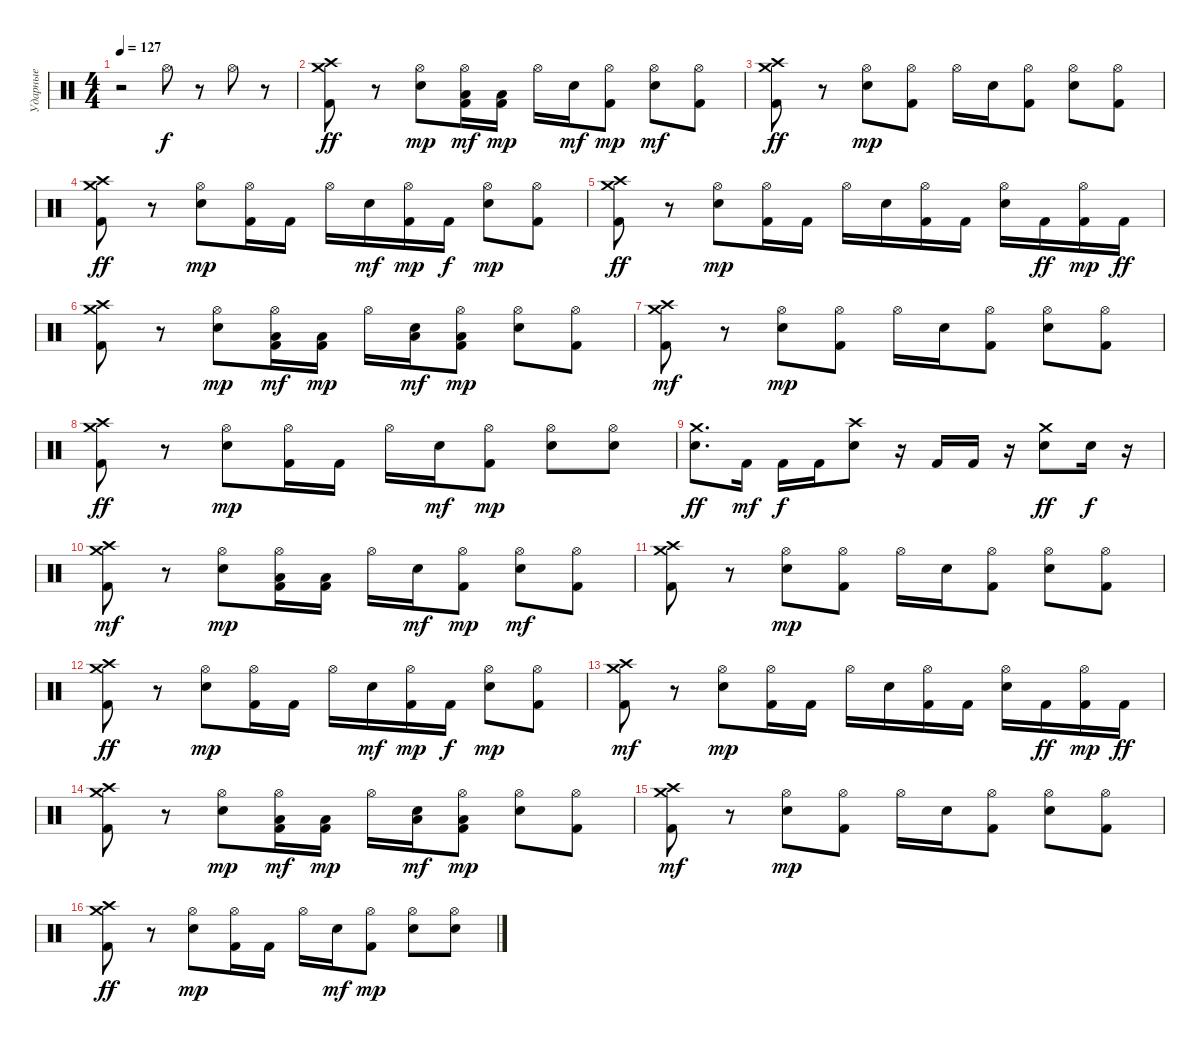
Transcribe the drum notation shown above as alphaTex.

\track ("Ударные" "Ударные") {instrument percussion}
\staff {score}
\articulation defaults
\ts (4 4)
\tempo 127
\clef neutral
\ks c
r.2{dy f} "Hi-Hat (open)".8 r.8 "Hi-Hat (open)".8 r.8 |
("Crash high (hit)" "Crash medium (hit)" "Kick (hit) 2").8{dy ff} r.8 ("Hi-Hat (open)" "Snare (hit) 2").8{dy mp} ("Hi-Hat (open)" "Kick (hit) 2" "Low Tom (hit)").16{dy mf} ("Kick (hit) 2" "Low Floor Tom (hit)").16{dy mp} "Hi-Hat (open)".16 "Electric Snare (hit)".16{dy mf} ("Hi-Hat (open)" "Kick (hit) 2").8{dy mp} ("Hi-Hat (open)" "Snare (hit) 2").8{dy mf} ("Hi-Hat (open)" "Kick (hit) 2").8 |
("Crash high (hit)" "Crash medium (hit)" "Kick (hit) 2").8{dy ff} r.8 ("Hi-Hat (open)" "Snare (hit) 2").8{dy mp} ("Hi-Hat (open)" "Kick (hit) 2").8 "Hi-Hat (open)".16 "Electric Snare (hit)".16 ("Kick (hit) 2" "Hi-Hat (open)").8 ("Snare (hit) 2" "Hi-Hat (open)").8 ("Hi-Hat (open)" "Kick (hit) 2").8 |
("Crash high (hit)" "Crash medium (hit)" "Kick (hit) 2").8{dy ff} r.8 ("Snare (hit) 2" "Hi-Hat (open)").8{dy mp} ("Kick (hit) 2" "Hi-Hat (open)").16 "Kick (hit) 2".16 "Hi-Hat (open)".16 "Electric Snare (hit)".16{dy mf} ("Kick (hit) 2" "Hi-Hat (open)").16{dy mp} "Kick (hit) 2".16{dy f} ("Snare (hit) 2" "Hi-Hat (open)").8{dy mp} ("Kick (hit) 2" "Hi-Hat (open)").8 |
("Crash high (hit)" "Crash medium (hit)" "Kick (hit) 2").8{dy ff} r.8 ("Electric Snare (hit)" "Hi-Hat (open)").8{dy mp} ("Hi-Hat (open)" "Kick (hit) 2").16 "Kick (hit) 2".16 "Hi-Hat (open)".16 "Electric Snare (hit)".16 ("Hi-Hat (open)" "Kick (hit) 2").16 "Kick (hit) 2".16 ("Electric Snare (hit)" "Hi-Hat (open)").16 "Kick (hit) 2".16{dy ff} ("Hi-Hat (open)" "Kick (hit) 2").16{dy mp} "Kick (hit) 2".16{dy ff} |
("Crash high (hit)" "Crash medium (hit)" "Kick (hit) 2").8 r.8 ("Hi-Hat (open)" "Snare (hit) 2").8{dy mp} ("Hi-Hat (open)" "Kick (hit) 2" "Low Tom (hit)").16{dy mf} ("Low Floor Tom (hit)" "Kick (hit) 2").16{dy mp} "Hi-Hat (open)".16 ("Low Floor Tom (hit)" "Electric Snare (hit)").16{dy mf} ("Low Tom (hit)" "Kick (hit) 2" "Hi-Hat (open)").8{dy mp} ("Hi-Hat (open)" "Snare (hit) 2").8 ("Hi-Hat (open)" "Kick (hit) 2").8 |
("Kick (hit) 2" "Crash medium (hit)" "Crash high (hit)").8{dy mf} r.8 ("Snare (hit) 2" "Hi-Hat (open)").8{dy mp} ("Kick (hit) 2" "Hi-Hat (open)").8 "Hi-Hat (open)".16 "Electric Snare (hit)".16 ("Hi-Hat (open)" "Kick (hit) 2").8 ("Hi-Hat (open)" "Snare (hit) 2").8 ("Hi-Hat (open)" "Kick (hit) 2").8 |
("Crash high (hit)" "Crash medium (hit)" "Kick (hit) 2").8{dy ff} r.8 ("Snare (hit) 2" "Hi-Hat (open)").8{dy mp} ("Kick (hit) 2" "Hi-Hat (open)").16 "Kick (hit) 2".16 "Hi-Hat (open)".16 "Electric Snare (hit)".16{dy mf} ("Hi-Hat (open)" "Kick (hit) 2").8{dy mp} ("Hi-Hat (open)" "Snare (hit) 2").8 ("Snare (hit) 2" "Hi-Hat (open)").8 |
("Snare (hit) 2" "Crash medium (hit)").8{d dy ff} "Kick (hit) 2".16{dy mf} "Kick (hit) 2".16{dy f} "Kick (hit) 2".16 ("Crash high (hit)" "Snare (hit) 2").8 r.16 "Kick (hit) 2".16 "Kick (hit) 2".16 r.16 ("Crash medium (hit)" "Snare (hit) 2").8{dy ff} "Snare (hit) 2".16{dy f} r.16 |
("Kick (hit) 2" "Crash medium (hit)" "Crash high (hit)").8{dy mf} r.8 ("Snare (hit) 2" "Hi-Hat (open)").8{dy mp} ("Low Tom (hit)" "Hi-Hat (open)" "Kick (hit) 2").16 ("Kick (hit) 2" "Low Floor Tom (hit)").16 "Hi-Hat (open)".16 "Electric Snare (hit)".16{dy mf} ("Hi-Hat (open)" "Kick (hit) 2").8{dy mp} ("Snare (hit) 2" "Hi-Hat (open)").8{dy mf} ("Hi-Hat (open)" "Kick (hit) 2").8 |
("Kick (hit) 2" "Crash medium (hit)" "Crash high (hit)").8 r.8 ("Hi-Hat (open)" "Snare (hit) 2").8{dy mp} ("Hi-Hat (open)" "Kick (hit) 2").8 "Hi-Hat (open)".16 "Electric Snare (hit)".16 ("Kick (hit) 2" "Hi-Hat (open)").8 ("Snare (hit) 2" "Hi-Hat (open)").8 ("Hi-Hat (open)" "Kick (hit) 2").8 |
("Crash high (hit)" "Crash medium (hit)" "Kick (hit) 2").8{dy ff} r.8 ("Hi-Hat (open)" "Snare (hit) 2").8{dy mp} ("Hi-Hat (open)" "Kick (hit) 2").16 "Kick (hit) 2".16 "Hi-Hat (open)".16 "Electric Snare (hit)".16{dy mf} ("Hi-Hat (open)" "Kick (hit) 2").16{dy mp} "Kick (hit) 2".16{dy f} ("Hi-Hat (open)" "Snare (hit) 2").8{dy mp} ("Kick (hit) 2" "Hi-Hat (open)").8 |
("Kick (hit) 2" "Crash medium (hit)" "Crash high (hit)").8{dy mf} r.8 ("Electric Snare (hit)" "Hi-Hat (open)").8{dy mp} ("Kick (hit) 2" "Hi-Hat (open)").16 "Kick (hit) 2".16 "Hi-Hat (open)".16 "Electric Snare (hit)".16 ("Hi-Hat (open)" "Kick (hit) 2").16 "Kick (hit) 2".16 ("Hi-Hat (open)" "Electric Snare (hit)").16 "Kick (hit) 2".16{dy ff} ("Kick (hit) 2" "Hi-Hat (open)").16{dy mp} "Kick (hit) 2".16{dy ff} |
("Crash high (hit)" "Crash medium (hit)" "Kick (hit) 2").8 r.8 ("Snare (hit) 2" "Hi-Hat (open)").8{dy mp} ("Hi-Hat (open)" "Kick (hit) 2" "Low Tom (hit)").16{dy mf} ("Low Floor Tom (hit)" "Kick (hit) 2").16{dy mp} "Hi-Hat (open)".16 ("Low Floor Tom (hit)" "Electric Snare (hit)").16{dy mf} ("Low Tom (hit)" "Hi-Hat (open)" "Kick (hit) 2").8{dy mp} ("Snare (hit) 2" "Hi-Hat (open)").8 ("Kick (hit) 2" "Hi-Hat (open)").8 |
("Kick (hit) 2" "Crash medium (hit)" "Crash high (hit)").8{dy mf} r.8 ("Hi-Hat (open)" "Snare (hit) 2").8{dy mp} ("Kick (hit) 2" "Hi-Hat (open)").8 "Hi-Hat (open)".16 "Electric Snare (hit)".16 ("Kick (hit) 2" "Hi-Hat (open)").8 ("Snare (hit) 2" "Hi-Hat (open)").8 ("Hi-Hat (open)" "Kick (hit) 2").8 |
("Crash high (hit)" "Crash medium (hit)" "Kick (hit) 2").8{dy ff} r.8 ("Hi-Hat (open)" "Snare (hit) 2").8{dy mp} ("Kick (hit) 2" "Hi-Hat (open)").16 "Kick (hit) 2".16 "Hi-Hat (open)".16 "Electric Snare (hit)".16{dy mf} ("Hi-Hat (open)" "Kick (hit) 2").8{dy mp} ("Hi-Hat (open)" "Snare (hit) 2").8 ("Snare (hit) 2" "Hi-Hat (open)").8
